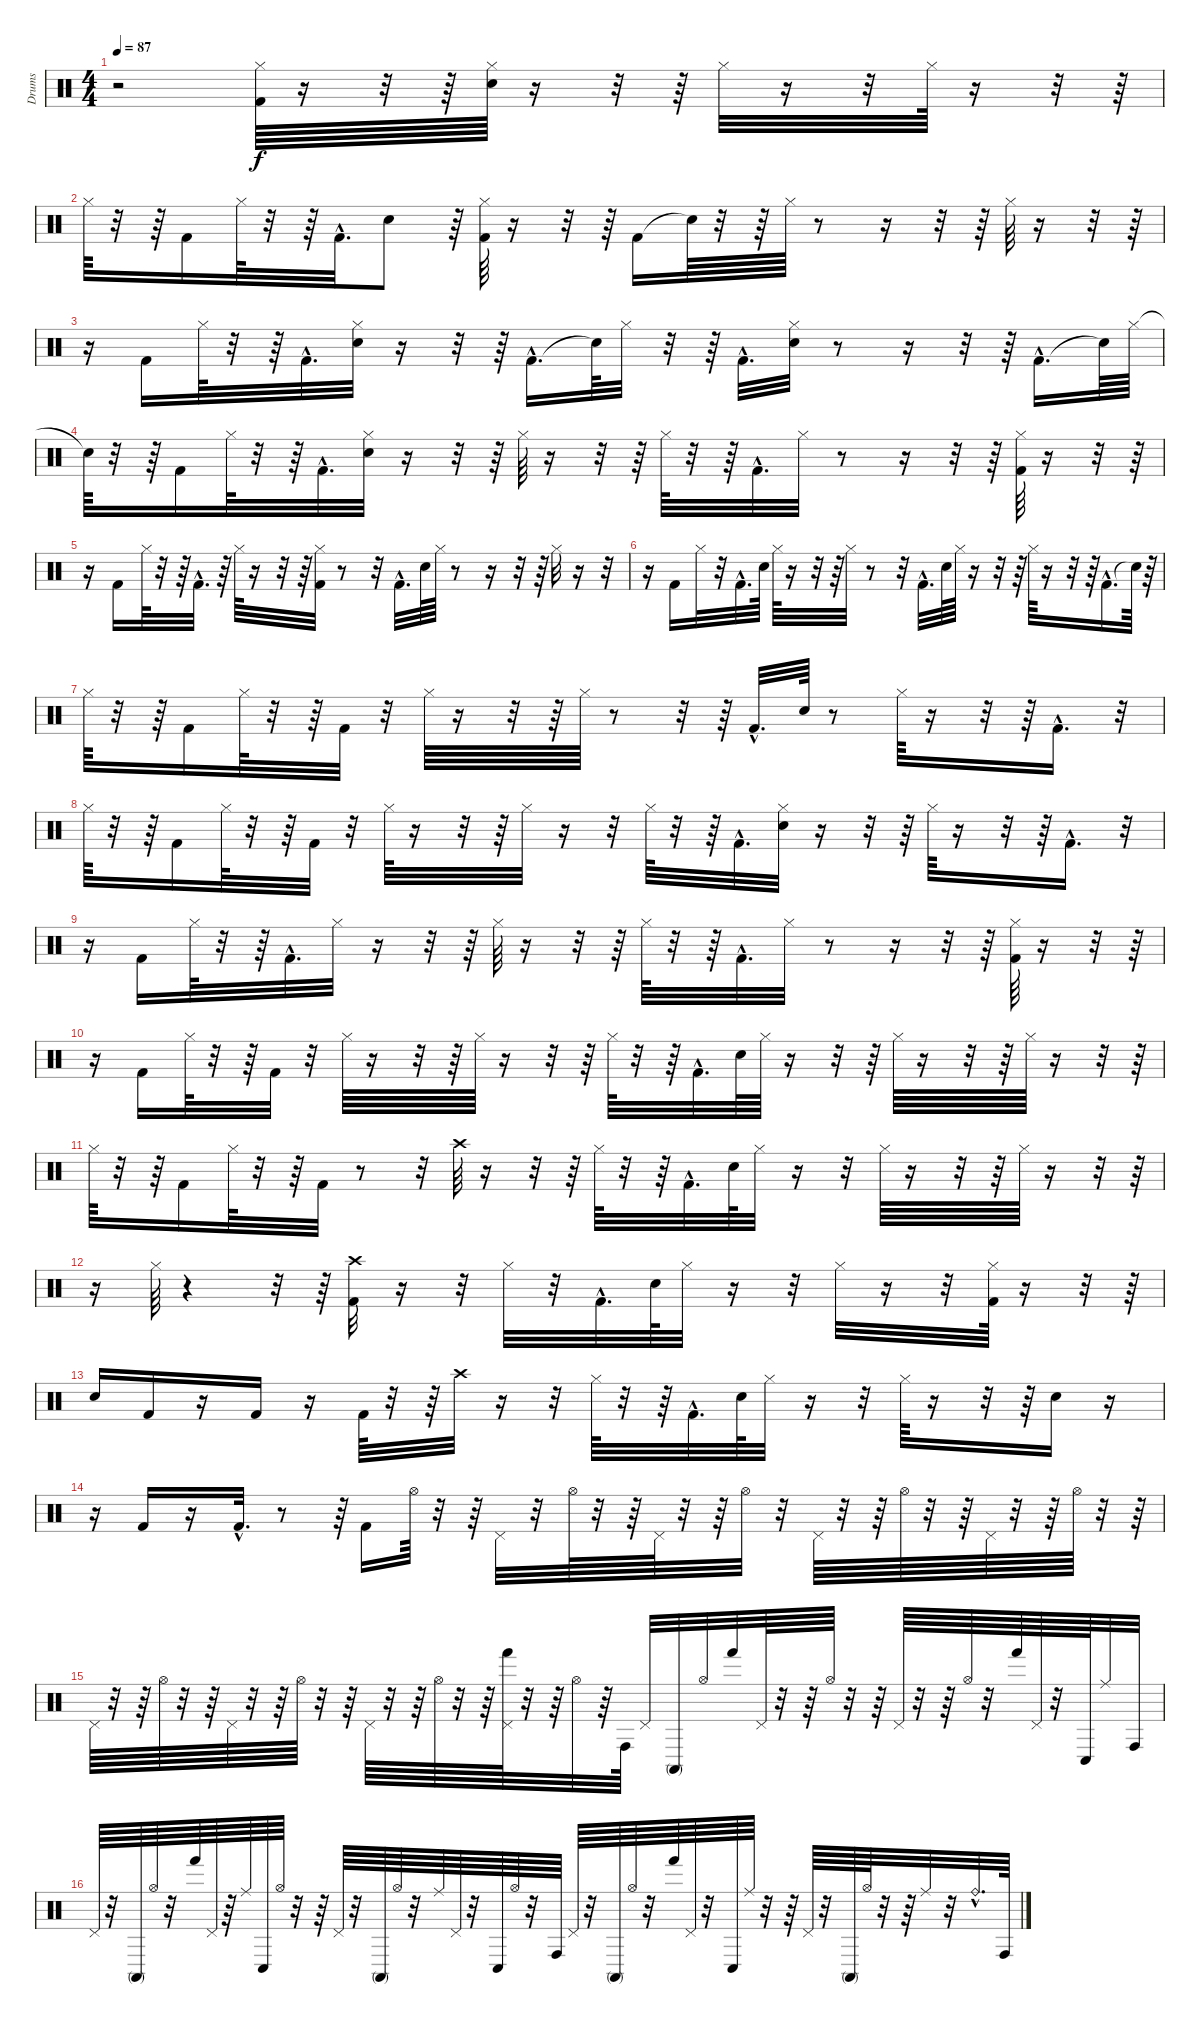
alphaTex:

\track ("Drums" "Drums") {instrument percussion}
\staff {score}
\articulation defaults
\ts (4 4)
\tempo 87
\clef neutral
\ks c
r.2{dy f} ("Kick (hit) 2" "Hi-Hat (closed)").64 r.16 r.32 r.64 ("Electric Snare (hit)" "Hi-Hat (closed)").64 r.16 r.32 r.64 "Hi-Hat (closed)".32 r.16 r.32 "Hi-Hat (closed)".64 r.16 r.32 r.64 |
"Hi-Hat (closed)".64 r.32 r.64 "Kick (hit) 2".16 "Hi-Hat (closed)".64 r.32 r.64 "Kick (hit) 2"{hac}.32{d} "Electric Snare (hit)".8 r.64 ("Kick (hit) 2" "Hi-Hat (closed)").64 r.16 r.32 r.64 "Kick (hit) 2".16 "Snare (hit)"{t}.64 r.32 r.64 "Hi-Hat (closed)".64 r.8 r.16 r.32 r.64 "Hi-Hat (closed)".64 r.16 r.32 r.64 |
r.16 "Kick (hit) 2".16 "Hi-Hat (closed)".64 r.32 r.64 "Kick (hit) 2"{hac}.32{d} ("Electric Snare (hit)" "Hi-Hat (closed)").32 r.16 r.32 r.64 "Kick (hit) 2"{hac}.16{d} "Snare (hit)"{t}.64 "Hi-Hat (closed)".32 r.32 r.64 "Kick (hit) 2"{hac}.32{d} ("Electric Snare (hit)" "Hi-Hat (closed)").32 r.8 r.16 r.32 r.64 "Kick (hit) 2"{hac}.16{d} "Snare (hit)"{t}.64 "Hi-Hat (closed)".64 |
"Snare (hit)"{t}.64 r.32 r.64 "Kick (hit) 2".16 "Hi-Hat (closed)".64 r.32 r.64 "Kick (hit) 2"{hac}.32{d} ("Electric Snare (hit)" "Hi-Hat (closed)").32 r.16 r.32 r.64 "Hi-Hat (closed)".64 r.16 r.32 r.64 "Hi-Hat (closed)".64 r.32 r.64 "Kick (hit) 2"{hac}.32{d} "Hi-Hat (closed)".32 r.8 r.16 r.32 r.64 ("Kick (hit) 2" "Hi-Hat (closed)").64 r.16 r.32 r.64 |
r.16 "Kick (hit) 2".16 "Hi-Hat (closed)".64 r.32 r.64 "Kick (hit) 2"{hac}.32{d} r.64 "Hi-Hat (closed)".64 r.16 r.32 r.64 ("Kick (hit) 2" "Hi-Hat (closed)").32 r.8 r.32 "Kick (hit) 2"{hac}.32{d} "Electric Snare (hit)".64 "Hi-Hat (closed)".64 r.8 r.16 r.32 r.64 "Hi-Hat (closed)".32 r.16 r.32 |
r.16 "Kick (hit) 2".16 "Hi-Hat (closed)".32 r.32 "Kick (hit) 2"{hac}.32{d} "Electric Snare (hit)".64 "Hi-Hat (closed)".64 r.16 r.32 r.64 "Hi-Hat (closed)".32 r.8 r.32 "Kick (hit) 2"{hac}.32{d} "Electric Snare (hit)".64 "Hi-Hat (closed)".64 r.16 r.32 r.64 "Hi-Hat (closed)".64 r.16 r.32 r.64 "Kick (hit) 2"{hac}.16{d} "Snare (hit)"{t}.64 r.64 |
"Hi-Hat (closed)".64 r.32 r.64 "Kick (hit) 2".16 "Hi-Hat (closed)".64 r.32 r.64 "Kick (hit) 2".32 r.32 "Hi-Hat (closed)".64 r.16 r.32 r.64 "Hi-Hat (closed)".64 r.8 r.32 r.64 "Kick (hit) 2"{hac}.32{d} "Electric Snare (hit)".64 r.8 "Hi-Hat (closed)".64 r.16 r.32 r.64 "Kick (hit) 2"{hac}.16{d} r.32 |
"Hi-Hat (closed)".64 r.32 r.64 "Kick (hit) 2".16 "Hi-Hat (closed)".64 r.32 r.64 "Kick (hit) 2".32 r.32 "Hi-Hat (closed)".64 r.16 r.32 r.64 "Hi-Hat (closed)".32 r.16 r.32 "Hi-Hat (closed)".64 r.32 r.64 "Kick (hit) 2"{hac}.32{d} ("Electric Snare (hit)" "Hi-Hat (closed)").32 r.16 r.32 r.64 "Hi-Hat (closed)".64 r.16 r.32 r.64 "Kick (hit) 2"{hac}.16{d} r.32 |
r.16 "Kick (hit) 2".16 "Hi-Hat (closed)".64 r.32 r.64 "Kick (hit) 2"{hac}.32{d} "Hi-Hat (closed)".32 r.16 r.32 r.64 "Hi-Hat (closed)".64 r.16 r.32 r.64 "Hi-Hat (closed)".64 r.32 r.64 "Kick (hit) 2"{hac}.32{d} "Hi-Hat (closed)".32 r.8 r.16 r.32 r.64 ("Kick (hit) 2" "Hi-Hat (closed)").64 r.16 r.32 r.64 |
r.16 "Kick (hit) 2".16 "Hi-Hat (closed)".64 r.32 r.64 "Kick (hit) 2".32 r.32 "Hi-Hat (closed)".64 r.16 r.32 r.64 "Hi-Hat (closed)".64 r.16 r.32 r.64 "Hi-Hat (closed)".64 r.32 r.64 "Kick (hit) 2"{hac}.32{d} "Electric Snare (hit)".64 "Hi-Hat (closed)".64 r.16 r.32 r.64 "Hi-Hat (closed)".64 r.16 r.32 r.64 "Hi-Hat (closed)".64 r.16 r.32 r.64 |
"Hi-Hat (closed)".64 r.32 r.64 "Kick (hit) 2".16 "Hi-Hat (closed)".64 r.32 r.64 "Kick (hit) 2".32 r.8 r.32 "Crash high (hit)".64 r.16 r.32 r.64 "Hi-Hat (closed)".64 r.32 r.64 "Kick (hit) 2"{hac}.32{d} "Electric Snare (hit)".64 "Hi-Hat (closed)".32 r.16 r.32 "Hi-Hat (closed)".64 r.16 r.32 r.64 "Hi-Hat (closed)".64 r.16 r.32 r.64 |
r.16 "Hi-Hat (closed)".64 r.4 r.32 r.64 ("Kick (hit) 2" "Crash high (hit)").32 r.16 r.32 "Hi-Hat (closed)".32 r.32 "Kick (hit) 2"{hac}.32{d} "Electric Snare (hit)".64 "Hi-Hat (closed)".32 r.16 r.32 "Hi-Hat (closed)".32 r.16 r.32 ("Kick (hit) 2" "Hi-Hat (closed)").64 r.16 r.32 r.64 |
"Electric Snare (hit)".16 "Kick (hit) 2".16 r.16 "Kick (hit) 2".16 r.16 "Kick (hit) 2".64 r.32 r.64 "Crash high (hit)".32 r.16 r.32 "Hi-Hat (closed)".64 r.32 r.64 "Kick (hit) 2"{hac}.32{d} "Electric Snare (hit)".64 "Hi-Hat (closed)".32 r.16 r.32 "Hi-Hat (closed)".64 r.16 r.32 r.64 "Electric Snare (hit)".16 r.16 |
r.16 "Kick (hit) 2".16 r.16 "Kick (hit) 2"{hac}.32{d} r.8 r.64 "Kick (hit) 2".16 "Hi-Hat (open)".64 r.32 r.64 "Pedal Hi-Hat (hit)".32 r.32 "Hi-Hat (open)".64 r.32 r.64 "Pedal Hi-Hat (hit)".64 r.32 r.64 "Hi-Hat (open)".32 r.32 "Pedal Hi-Hat (hit)".64 r.32 r.64 "Hi-Hat (open)".64 r.32 r.64 "Pedal Hi-Hat (hit)".64 r.32 r.64 "Hi-Hat (open)".64 r.32 r.64 |
"Pedal Hi-Hat (hit)".64 r.32 r.64 "Hi-Hat (open)".64 r.32 r.64 "Pedal Hi-Hat (hit)".64 r.32 r.64 "Hi-Hat (open)".64 r.32 r.64 "Pedal Hi-Hat (hit)".64 r.32 r.64 "Hi-Hat (open)".64 r.32 r.64 ("Hand (hit)" "Pedal Hi-Hat (hit)").64 r.32 r.64 "Hi-Hat (open)".32 r.64 "Conga high (hit)".64 "Pedal Hi-Hat (hit)".32 "Conga high (mute)".32 "Hi-Hat (open)".32 "Hand (hit)".32 "Pedal Hi-Hat (hit)".64 r.32 r.64 "Hi-Hat (open)".64 r.32 r.64 "Pedal Hi-Hat (hit)".64 r.32 r.64 "Hi-Hat (open)".64 r.32 "Hand (hit)".64 "Pedal Hi-Hat (hit)".64 r.32 "Conga low (hit)".64 "Ride (middle)".32 "Conga high (hit)".32 |
"Pedal Hi-Hat (hit)".64 r.32 "Conga high (mute)".64 "Hi-Hat (open)".64 r.32 "Hand (hit)".64 "Pedal Hi-Hat (hit)".64 r.64 "Ride (middle)".64 "Conga low (hit)".64 "Hi-Hat (open)".64 r.32 r.64 "Pedal Hi-Hat (hit)".64 r.32 "Conga high (mute)".64 "Hi-Hat (open)".64 r.32 "Ride (middle)".64 "Pedal Hi-Hat (hit)".64 r.32 "Conga low (hit)".64 "Hi-Hat (open)".64 r.32 "Conga high (hit)".64 "Pedal Hi-Hat (hit)".64 r.32 "Conga high (mute)".64 "Hi-Hat (open)".64 r.32 "Hand (hit)".64 "Pedal Hi-Hat (hit)".64 r.32 "Conga low (hit)".64 "Ride (middle)".64 r.32 r.64 "Pedal Hi-Hat (hit)".64 r.32 "Conga high (mute)".64 "Hi-Hat (open)".64 r.32 r.64 "Ride (middle)".32 r.32 "Ride (bell)"{hac}.32{d} "Conga high (hit)".64
